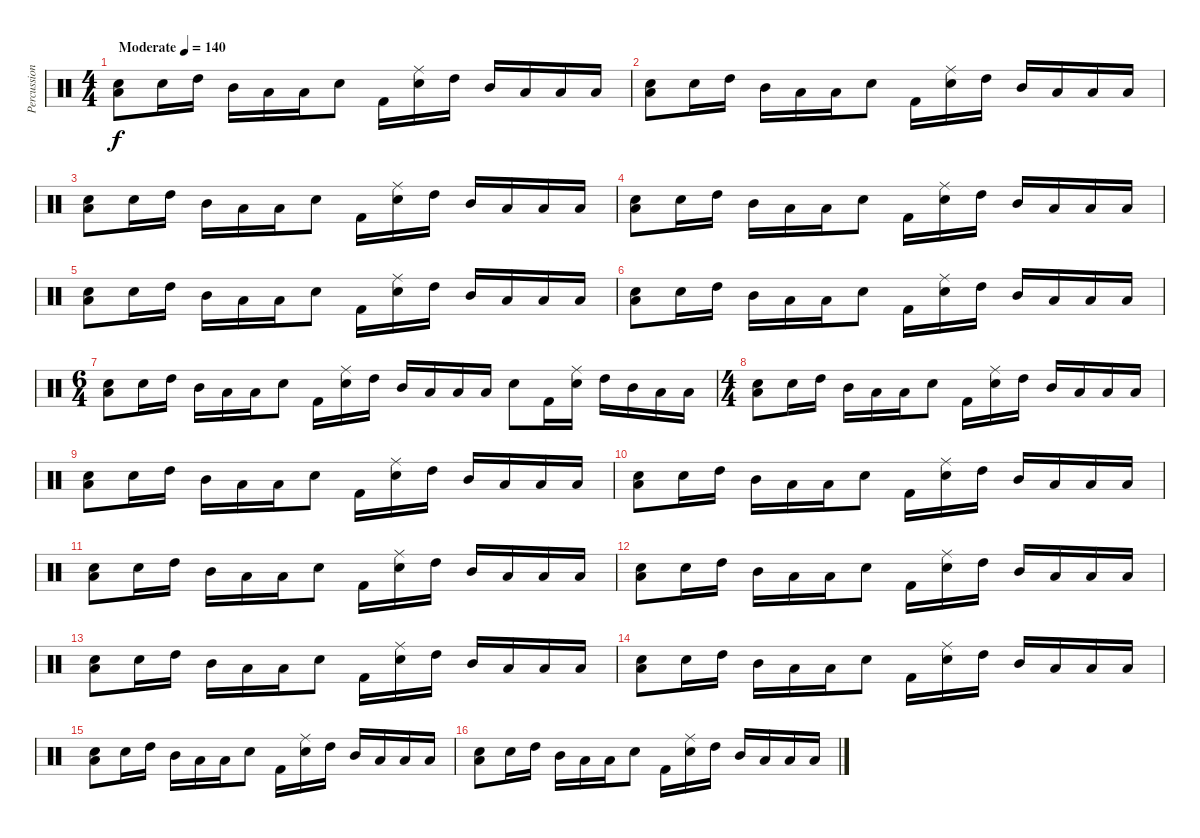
\track ("Percussion" "Percussion") {instrument percussion}
\staff {score}
\articulation defaults
\ts (4 4)
\tempo (140 "Moderate")
\clef neutral
\ks c
("Low Tom (hit)" "Electric Snare (hit)").8{dy f} "Snare (hit) 2".16 "High Tom (hit)".16 "Mid Tom (hit)".16 "Low Tom (hit)".16 "Low Floor Tom (hit)".16 "Snare (hit) 2".8 "Kick (hit) 2".16 ("Ride (middle)" "Snare (hit) 2").16 "High Tom (hit)".16 "Mid Tom (hit)".16 "Low Tom (hit)".16 "Low Floor Tom (hit)".16 "Low Floor Tom (hit)".16 |
("Low Tom (hit)" "Electric Snare (hit)").8 "Snare (hit) 2".16 "High Tom (hit)".16 "Mid Tom (hit)".16 "Low Tom (hit)".16 "Low Floor Tom (hit)".16 "Snare (hit) 2".8 "Kick (hit) 2".16 ("Ride (middle)" "Snare (hit) 2").16 "High Tom (hit)".16 "Mid Tom (hit)".16 "Low Tom (hit)".16 "Low Floor Tom (hit)".16 "Low Floor Tom (hit)".16 |
("Low Tom (hit)" "Electric Snare (hit)").8 "Snare (hit) 2".16 "High Tom (hit)".16 "Mid Tom (hit)".16 "Low Tom (hit)".16 "Low Floor Tom (hit)".16 "Snare (hit) 2".8 "Kick (hit) 2".16 ("Ride (middle)" "Snare (hit) 2").16 "High Tom (hit)".16 "Mid Tom (hit)".16 "Low Tom (hit)".16 "Low Floor Tom (hit)".16 "Low Floor Tom (hit)".16 |
("Low Tom (hit)" "Electric Snare (hit)").8 "Snare (hit) 2".16 "High Tom (hit)".16 "Mid Tom (hit)".16 "Low Tom (hit)".16 "Low Floor Tom (hit)".16 "Snare (hit) 2".8 "Kick (hit) 2".16 ("Ride (middle)" "Snare (hit) 2").16 "High Tom (hit)".16 "Mid Tom (hit)".16 "Low Tom (hit)".16 "Low Floor Tom (hit)".16 "Low Floor Tom (hit)".16 |
("Low Tom (hit)" "Electric Snare (hit)").8 "Snare (hit) 2".16 "High Tom (hit)".16 "Mid Tom (hit)".16 "Low Tom (hit)".16 "Low Floor Tom (hit)".16 "Snare (hit) 2".8 "Kick (hit) 2".16 ("Ride (middle)" "Snare (hit) 2").16 "High Tom (hit)".16 "Mid Tom (hit)".16 "Low Tom (hit)".16 "Low Floor Tom (hit)".16 "Low Floor Tom (hit)".16 |
("Low Tom (hit)" "Electric Snare (hit)").8 "Snare (hit) 2".16 "High Tom (hit)".16 "Mid Tom (hit)".16 "Low Tom (hit)".16 "Low Floor Tom (hit)".16 "Snare (hit) 2".8 "Kick (hit) 2".16 ("Ride (middle)" "Snare (hit) 2").16 "High Tom (hit)".16 "Mid Tom (hit)".16 "Low Tom (hit)".16 "Low Floor Tom (hit)".16 "Low Floor Tom (hit)".16 |
\ts (6 4)
("Low Tom (hit)" "Electric Snare (hit)").8 "Snare (hit) 2".16 "High Tom (hit)".16 "Mid Tom (hit)".16 "Low Tom (hit)".16 "Low Floor Tom (hit)".16 "Snare (hit) 2".8 "Kick (hit) 2".16 ("Ride (middle)" "Snare (hit) 2").16 "High Tom (hit)".16 "Mid Tom (hit)".16 "Low Tom (hit)".16 "Low Floor Tom (hit)".16 "Low Floor Tom (hit)".16 "Snare (hit) 2".8 "Kick (hit) 2".16 ("Ride (middle)" "Snare (hit) 2").16 "High Tom (hit)".16 "Mid Tom (hit)".16 "Low Tom (hit)".16 "Low Floor Tom (hit)".16 |
\ts (4 4)
("Low Tom (hit)" "Electric Snare (hit)").8 "Snare (hit) 2".16 "High Tom (hit)".16 "Mid Tom (hit)".16 "Low Tom (hit)".16 "Low Floor Tom (hit)".16 "Snare (hit) 2".8 "Kick (hit) 2".16 ("Ride (middle)" "Snare (hit) 2").16 "High Tom (hit)".16 "Mid Tom (hit)".16 "Low Tom (hit)".16 "Low Floor Tom (hit)".16 "Low Floor Tom (hit)".16 |
("Low Tom (hit)" "Electric Snare (hit)").8 "Snare (hit) 2".16 "High Tom (hit)".16 "Mid Tom (hit)".16 "Low Tom (hit)".16 "Low Floor Tom (hit)".16 "Snare (hit) 2".8 "Kick (hit) 2".16 ("Ride (middle)" "Snare (hit) 2").16 "High Tom (hit)".16 "Mid Tom (hit)".16 "Low Tom (hit)".16 "Low Floor Tom (hit)".16 "Low Floor Tom (hit)".16 |
("Low Tom (hit)" "Electric Snare (hit)").8 "Snare (hit) 2".16 "High Tom (hit)".16 "Mid Tom (hit)".16 "Low Tom (hit)".16 "Low Floor Tom (hit)".16 "Snare (hit) 2".8 "Kick (hit) 2".16 ("Ride (middle)" "Snare (hit) 2").16 "High Tom (hit)".16 "Mid Tom (hit)".16 "Low Tom (hit)".16 "Low Floor Tom (hit)".16 "Low Floor Tom (hit)".16 |
("Low Tom (hit)" "Electric Snare (hit)").8 "Snare (hit) 2".16 "High Tom (hit)".16 "Mid Tom (hit)".16 "Low Tom (hit)".16 "Low Floor Tom (hit)".16 "Snare (hit) 2".8 "Kick (hit) 2".16 ("Ride (middle)" "Snare (hit) 2").16 "High Tom (hit)".16 "Mid Tom (hit)".16 "Low Tom (hit)".16 "Low Floor Tom (hit)".16 "Low Floor Tom (hit)".16 |
("Low Tom (hit)" "Electric Snare (hit)").8 "Snare (hit) 2".16 "High Tom (hit)".16 "Mid Tom (hit)".16 "Low Tom (hit)".16 "Low Floor Tom (hit)".16 "Snare (hit) 2".8 "Kick (hit) 2".16 ("Ride (middle)" "Snare (hit) 2").16 "High Tom (hit)".16 "Mid Tom (hit)".16 "Low Tom (hit)".16 "Low Floor Tom (hit)".16 "Low Floor Tom (hit)".16 |
("Low Tom (hit)" "Electric Snare (hit)").8 "Snare (hit) 2".16 "High Tom (hit)".16 "Mid Tom (hit)".16 "Low Tom (hit)".16 "Low Floor Tom (hit)".16 "Snare (hit) 2".8 "Kick (hit) 2".16 ("Ride (middle)" "Snare (hit) 2").16 "High Tom (hit)".16 "Mid Tom (hit)".16 "Low Tom (hit)".16 "Low Floor Tom (hit)".16 "Low Floor Tom (hit)".16 |
("Low Tom (hit)" "Electric Snare (hit)").8 "Snare (hit) 2".16 "High Tom (hit)".16 "Mid Tom (hit)".16 "Low Tom (hit)".16 "Low Floor Tom (hit)".16 "Snare (hit) 2".8 "Kick (hit) 2".16 ("Ride (middle)" "Snare (hit) 2").16 "High Tom (hit)".16 "Mid Tom (hit)".16 "Low Tom (hit)".16 "Low Floor Tom (hit)".16 "Low Floor Tom (hit)".16 |
("Low Tom (hit)" "Electric Snare (hit)").8 "Snare (hit) 2".16 "High Tom (hit)".16 "Mid Tom (hit)".16 "Low Tom (hit)".16 "Low Floor Tom (hit)".16 "Snare (hit) 2".8 "Kick (hit) 2".16 ("Ride (middle)" "Snare (hit) 2").16 "High Tom (hit)".16 "Mid Tom (hit)".16 "Low Tom (hit)".16 "Low Floor Tom (hit)".16 "Low Floor Tom (hit)".16 |
("Low Tom (hit)" "Electric Snare (hit)").8 "Snare (hit) 2".16 "High Tom (hit)".16 "Mid Tom (hit)".16 "Low Tom (hit)".16 "Low Floor Tom (hit)".16 "Snare (hit) 2".8 "Kick (hit) 2".16 ("Ride (middle)" "Snare (hit) 2").16 "High Tom (hit)".16 "Mid Tom (hit)".16 "Low Tom (hit)".16 "Low Floor Tom (hit)".16 "Low Floor Tom (hit)".16
